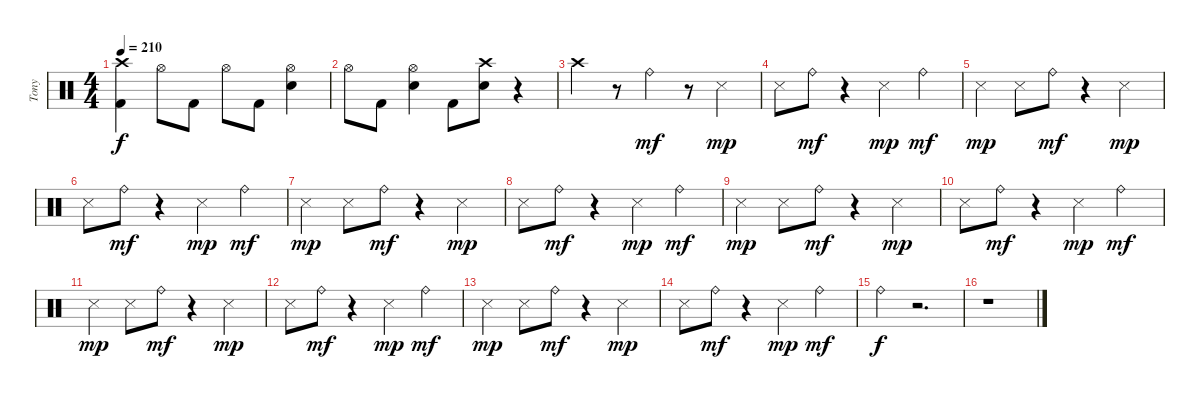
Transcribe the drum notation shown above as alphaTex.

\track ("Tony" "Tony") {instrument percussion}
\staff {score}
\articulation defaults
\ts (4 4)
\tempo 210
\clef neutral
\ks c
("Kick (hit) 2" "Crash high (hit)").4{dy f} "Hi-Hat (open)".8 "Kick (hit) 2".8 "Hi-Hat (open)".8 "Kick (hit) 2".8 ("Snare (hit) 2" "Hi-Hat (open)").4 |
"Hi-Hat (open)".8 "Kick (hit) 2".8 ("Snare (hit) 2" "Hi-Hat (open)").4 "Kick (hit) 2".8 ("Crash high (hit)" "Snare (hit) 2").8 r.4 |
"Crash high (hit)".4 r.8 "Ride (bell)".4{dy mf} r.8 "Snare (side stick) 3".4{dy mp} |
"Snare (side stick) 3".8 "Ride (bell)".8{dy mf} r.4 "Snare (side stick) 3".4{dy mp} "Ride (bell)".4{dy mf} |
"Snare (side stick) 3".4{dy mp} "Snare (side stick) 3".8 "Ride (bell)".8{dy mf} r.4 "Snare (side stick) 3".4{dy mp} |
"Snare (side stick) 3".8 "Ride (bell)".8{dy mf} r.4 "Snare (side stick) 3".4{dy mp} "Ride (bell)".4{dy mf} |
"Snare (side stick) 3".4{dy mp} "Snare (side stick) 3".8 "Ride (bell)".8{dy mf} r.4 "Snare (side stick) 3".4{dy mp} |
"Snare (side stick) 3".8 "Ride (bell)".8{dy mf} r.4 "Snare (side stick) 3".4{dy mp} "Ride (bell)".4{dy mf} |
"Snare (side stick) 3".4{dy mp} "Snare (side stick) 3".8 "Ride (bell)".8{dy mf} r.4 "Snare (side stick) 3".4{dy mp} |
"Snare (side stick) 3".8 "Ride (bell)".8{dy mf} r.4 "Snare (side stick) 3".4{dy mp} "Ride (bell)".4{dy mf} |
"Snare (side stick) 3".4{dy mp} "Snare (side stick) 3".8 "Ride (bell)".8{dy mf} r.4 "Snare (side stick) 3".4{dy mp} |
"Snare (side stick) 3".8 "Ride (bell)".8{dy mf} r.4 "Snare (side stick) 3".4{dy mp} "Ride (bell)".4{dy mf} |
"Snare (side stick) 3".4{dy mp} "Snare (side stick) 3".8 "Ride (bell)".8{dy mf} r.4 "Snare (side stick) 3".4{dy mp} |
"Snare (side stick) 3".8 "Ride (bell)".8{dy mf} r.4 "Snare (side stick) 3".4{dy mp} "Ride (bell)".4{dy mf} |
"Ride (bell)".4{dy f} r.2{d} |
r.1
